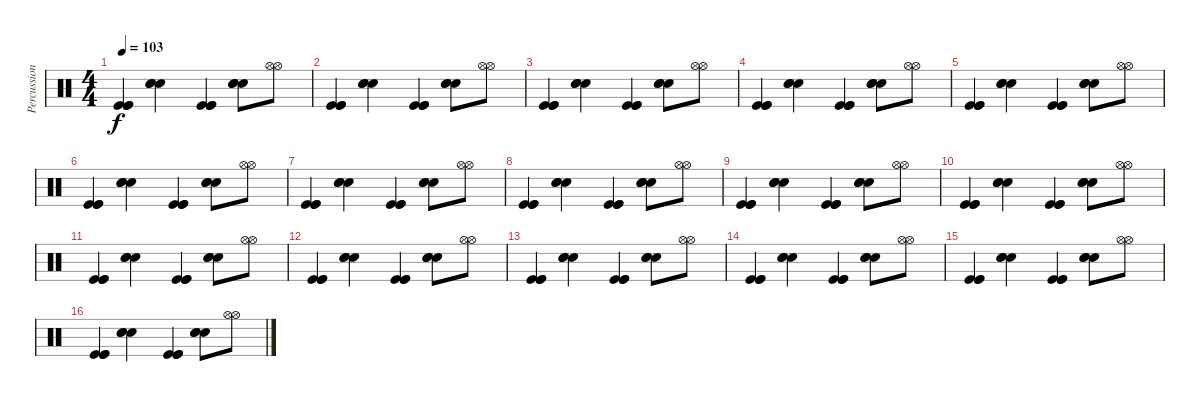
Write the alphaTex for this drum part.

\track ("Percussion (Wall prt. 2)" "Percussion") {instrument percussion}
\staff {score}
\articulation defaults
\ts (4 4)
\tempo 103
\clef neutral
\ks c
("Kick (hit)" "Kick (hit)" "Kick (hit)").4{dy f} ("Snare (hit) 2" "Snare (hit) 2" "Snare (hit) 2").4 ("Kick (hit)" "Kick (hit)" "Kick (hit)").4 ("Snare (hit) 2" "Snare (hit) 2" "Snare (hit) 2").8 ("Hi-Hat (open)" "Hi-Hat (open)").8 |
("Kick (hit)" "Kick (hit)" "Kick (hit)").4 ("Snare (hit) 2" "Snare (hit) 2" "Snare (hit) 2").4 ("Kick (hit)" "Kick (hit)" "Kick (hit)").4 ("Snare (hit) 2" "Snare (hit) 2" "Snare (hit) 2").8 ("Hi-Hat (open)" "Hi-Hat (open)").8 |
("Kick (hit)" "Kick (hit)" "Kick (hit)").4 ("Snare (hit) 2" "Snare (hit) 2" "Snare (hit) 2").4 ("Kick (hit)" "Kick (hit)" "Kick (hit)").4 ("Snare (hit) 2" "Snare (hit) 2" "Snare (hit) 2").8 ("Hi-Hat (open)" "Hi-Hat (open)").8 |
("Kick (hit)" "Kick (hit)" "Kick (hit)").4 ("Snare (hit) 2" "Snare (hit) 2" "Snare (hit) 2").4 ("Kick (hit)" "Kick (hit)" "Kick (hit)").4 ("Snare (hit) 2" "Snare (hit) 2" "Snare (hit) 2").8 ("Hi-Hat (open)" "Hi-Hat (open)").8 |
("Kick (hit)" "Kick (hit)" "Kick (hit)").4 ("Snare (hit) 2" "Snare (hit) 2" "Snare (hit) 2").4 ("Kick (hit)" "Kick (hit)" "Kick (hit)").4 ("Snare (hit) 2" "Snare (hit) 2" "Snare (hit) 2").8 ("Hi-Hat (open)" "Hi-Hat (open)").8 |
("Kick (hit)" "Kick (hit)" "Kick (hit)").4 ("Snare (hit) 2" "Snare (hit) 2" "Snare (hit) 2").4 ("Kick (hit)" "Kick (hit)" "Kick (hit)").4 ("Snare (hit) 2" "Snare (hit) 2" "Snare (hit) 2").8 ("Hi-Hat (open)" "Hi-Hat (open)").8 |
("Kick (hit)" "Kick (hit)" "Kick (hit)").4 ("Snare (hit) 2" "Snare (hit) 2" "Snare (hit) 2").4 ("Kick (hit)" "Kick (hit)" "Kick (hit)").4 ("Snare (hit) 2" "Snare (hit) 2" "Snare (hit) 2").8 ("Hi-Hat (open)" "Hi-Hat (open)").8 |
("Kick (hit)" "Kick (hit)" "Kick (hit)").4 ("Snare (hit) 2" "Snare (hit) 2" "Snare (hit) 2").4 ("Kick (hit)" "Kick (hit)" "Kick (hit)").4 ("Snare (hit) 2" "Snare (hit) 2" "Snare (hit) 2").8 ("Hi-Hat (open)" "Hi-Hat (open)").8 |
("Kick (hit)" "Kick (hit)" "Kick (hit)").4 ("Snare (hit) 2" "Snare (hit) 2" "Snare (hit) 2").4 ("Kick (hit)" "Kick (hit)" "Kick (hit)").4 ("Snare (hit) 2" "Snare (hit) 2" "Snare (hit) 2").8 ("Hi-Hat (open)" "Hi-Hat (open)").8 |
("Kick (hit)" "Kick (hit)" "Kick (hit)").4 ("Snare (hit) 2" "Snare (hit) 2" "Snare (hit) 2").4 ("Kick (hit)" "Kick (hit)" "Kick (hit)").4 ("Snare (hit) 2" "Snare (hit) 2" "Snare (hit) 2").8 ("Hi-Hat (open)" "Hi-Hat (open)").8 |
("Kick (hit)" "Kick (hit)" "Kick (hit)").4 ("Snare (hit) 2" "Snare (hit) 2" "Snare (hit) 2").4 ("Kick (hit)" "Kick (hit)" "Kick (hit)").4 ("Snare (hit) 2" "Snare (hit) 2" "Snare (hit) 2").8 ("Hi-Hat (open)" "Hi-Hat (open)").8 |
("Kick (hit)" "Kick (hit)" "Kick (hit)").4 ("Snare (hit) 2" "Snare (hit) 2" "Snare (hit) 2").4 ("Kick (hit)" "Kick (hit)" "Kick (hit)").4 ("Snare (hit) 2" "Snare (hit) 2" "Snare (hit) 2").8 ("Hi-Hat (open)" "Hi-Hat (open)").8 |
("Kick (hit)" "Kick (hit)" "Kick (hit)").4 ("Snare (hit) 2" "Snare (hit) 2" "Snare (hit) 2").4 ("Kick (hit)" "Kick (hit)" "Kick (hit)").4 ("Snare (hit) 2" "Snare (hit) 2" "Snare (hit) 2").8 ("Hi-Hat (open)" "Hi-Hat (open)").8 |
("Kick (hit)" "Kick (hit)" "Kick (hit)").4 ("Snare (hit) 2" "Snare (hit) 2" "Snare (hit) 2").4 ("Kick (hit)" "Kick (hit)" "Kick (hit)").4 ("Snare (hit) 2" "Snare (hit) 2" "Snare (hit) 2").8 ("Hi-Hat (open)" "Hi-Hat (open)").8 |
("Kick (hit)" "Kick (hit)" "Kick (hit)").4 ("Snare (hit) 2" "Snare (hit) 2" "Snare (hit) 2").4 ("Kick (hit)" "Kick (hit)" "Kick (hit)").4 ("Snare (hit) 2" "Snare (hit) 2" "Snare (hit) 2").8 ("Hi-Hat (open)" "Hi-Hat (open)").8 |
("Kick (hit)" "Kick (hit)" "Kick (hit)").4 ("Snare (hit) 2" "Snare (hit) 2" "Snare (hit) 2").4 ("Kick (hit)" "Kick (hit)" "Kick (hit)").4 ("Snare (hit) 2" "Snare (hit) 2" "Snare (hit) 2").8 ("Hi-Hat (open)" "Hi-Hat (open)").8
